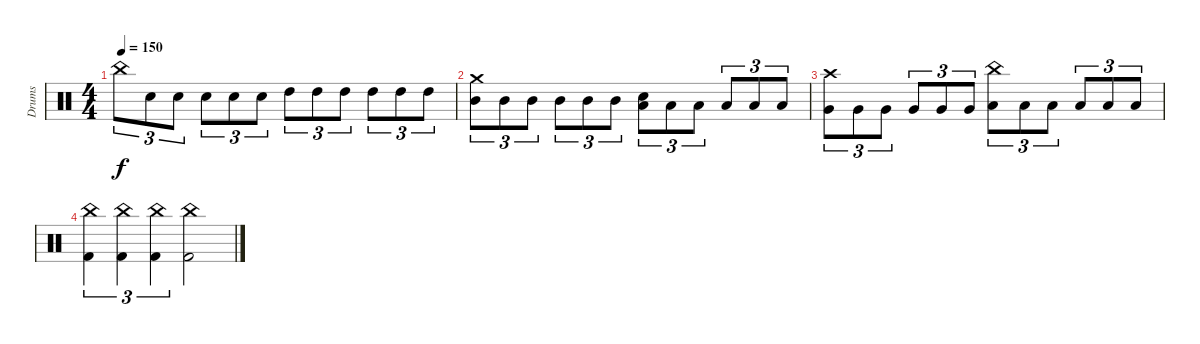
\track ("Drums" "Drums") {instrument percussion}
\staff {score}
\articulation defaults
\ts (4 4)
\tempo 150
\clef neutral
\ks c "China (hit)".8{tu (3 2) dy f} "Electric Snare (hit)".8{tu (3 2)} "Electric Snare (hit)".8{tu (3 2)} "Electric Snare (hit)".8{tu (3 2)} "Electric Snare (hit)".8{tu (3 2)} "Electric Snare (hit)".8{tu (3 2)} "High Tom (hit)".8{tu (3 2)} "High Tom (hit)".8{tu (3 2)} "High Tom (hit)".8{tu (3 2)} "High Tom (hit)".8{tu (3 2)} "High Tom (hit)".8{tu (3 2)} "High Tom (hit)".8{tu (3 2)}
|
("Crash medium (hit)" "Mid Tom (hit)").8{tu (3 2)} "Mid Tom (hit)".8{tu (3 2)} "Mid Tom (hit)".8{tu (3 2)} "Mid Tom (hit)".8{tu (3 2)} "Mid Tom (hit)".8{tu (3 2)} "Mid Tom (hit)".8{tu (3 2)} ("Low Tom (hit)" "Electric Snare (hit)").8{tu (3 2)} "Low Tom (hit)".8{tu (3 2)} "Low Tom (hit)".8{tu (3 2)} "Low Tom (hit)".8{tu (3 2)} "Low Tom (hit)".8{tu (3 2)} "Low Tom (hit)".8{tu (3 2)} |
("Crash high (hit)" "Very Low Tom (hit)").8{tu (3 2)} "Very Low Tom (hit)".8{tu (3 2)} "Very Low Tom (hit)".8{tu (3 2)} "Very Low Tom (hit)".8{tu (3 2)} "Very Low Tom (hit)".8{tu (3 2)} "Very Low Tom (hit)".8{tu (3 2)} ("China (hit)" "Low Floor Tom (hit)").8{tu (3 2)} "Low Floor Tom (hit)".8{tu (3 2)} "Low Floor Tom (hit)".8{tu (3 2)} "Low Floor Tom (hit)".8{tu (3 2)} "Low Floor Tom (hit)".8{tu (3 2)} "Low Floor Tom (hit)".8{tu (3 2)} |
("China (hit)" "Kick (hit) 2").4{tu (3 2)} ("China (hit)" "Kick (hit) 2").4{tu (3 2)} ("China (hit)" "Kick (hit) 2").4{tu (3 2)} ("China (hit)" "Kick (hit) 2").2
